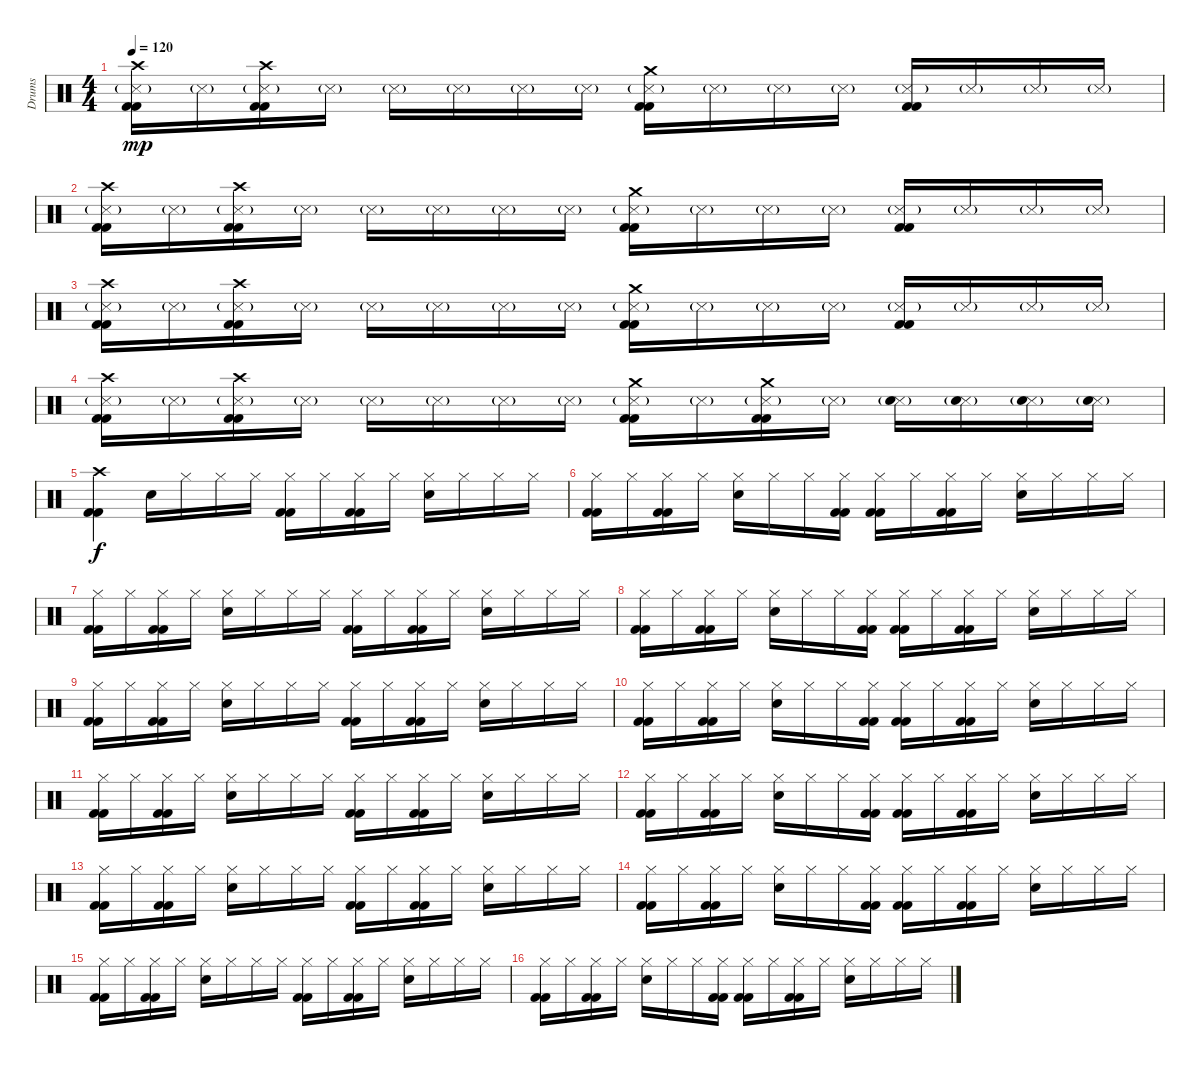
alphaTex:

\track ("Drums" "Drums") {instrument percussion}
\staff {score}
\articulation defaults
\ts (4 4)
\tempo 120
\clef neutral
\ks c
("Crash high (hit)" "Snare (side stick) 3"{g} "Kick (hit) 2" "Kick (hit) 2").16{dy mp} "Snare (side stick) 3"{g}.16 ("Crash high (hit)" "Snare (side stick) 3"{g} "Kick (hit) 2" "Kick (hit) 2").16 "Snare (side stick) 3"{g}.16 "Snare (side stick) 3"{g}.16 "Snare (side stick) 3"{g}.16 "Snare (side stick) 3"{g}.16 "Snare (side stick) 3"{g}.16 ("Crash medium (hit)" "Snare (side stick) 3"{g} "Kick (hit) 2" "Kick (hit) 2").16 "Snare (side stick) 3"{g}.16 "Snare (side stick) 3"{g}.16 "Snare (side stick) 3"{g}.16 ("Snare (side stick) 3"{g} "Kick (hit) 2" "Kick (hit) 2").16 "Snare (side stick) 3"{g}.16 "Snare (side stick) 3"{g}.16 "Snare (side stick) 3"{g}.16 |
("Crash high (hit)" "Snare (side stick) 3"{g} "Kick (hit) 2" "Kick (hit) 2").16 "Snare (side stick) 3"{g}.16 ("Crash high (hit)" "Snare (side stick) 3"{g} "Kick (hit) 2" "Kick (hit) 2").16 "Snare (side stick) 3"{g}.16 "Snare (side stick) 3"{g}.16 "Snare (side stick) 3"{g}.16 "Snare (side stick) 3"{g}.16 "Snare (side stick) 3"{g}.16 ("Crash medium (hit)" "Snare (side stick) 3"{g} "Kick (hit) 2" "Kick (hit) 2").16 "Snare (side stick) 3"{g}.16 "Snare (side stick) 3"{g}.16 "Snare (side stick) 3"{g}.16 ("Snare (side stick) 3"{g} "Kick (hit) 2" "Kick (hit) 2").16 "Snare (side stick) 3"{g}.16 "Snare (side stick) 3"{g}.16 "Snare (side stick) 3"{g}.16 |
("Crash high (hit)" "Snare (side stick) 3"{g} "Kick (hit) 2" "Kick (hit) 2").16 "Snare (side stick) 3"{g}.16 ("Crash high (hit)" "Snare (side stick) 3"{g} "Kick (hit) 2" "Kick (hit) 2").16 "Snare (side stick) 3"{g}.16 "Snare (side stick) 3"{g}.16 "Snare (side stick) 3"{g}.16 "Snare (side stick) 3"{g}.16 "Snare (side stick) 3"{g}.16 ("Crash medium (hit)" "Snare (side stick) 3"{g} "Kick (hit) 2" "Kick (hit) 2").16 "Snare (side stick) 3"{g}.16 "Snare (side stick) 3"{g}.16 "Snare (side stick) 3"{g}.16 ("Snare (side stick) 3"{g} "Kick (hit) 2" "Kick (hit) 2").16 "Snare (side stick) 3"{g}.16 "Snare (side stick) 3"{g}.16 "Snare (side stick) 3"{g}.16 |
("Crash high (hit)" "Snare (side stick) 3"{g} "Kick (hit) 2" "Kick (hit) 2").16 "Snare (side stick) 3"{g}.16 ("Crash high (hit)" "Snare (side stick) 3"{g} "Kick (hit) 2" "Kick (hit) 2").16 "Snare (side stick) 3"{g}.16 "Snare (side stick) 3"{g}.16 "Snare (side stick) 3"{g}.16 "Snare (side stick) 3"{g}.16 "Snare (side stick) 3"{g}.16 ("Crash medium (hit)" "Snare (side stick) 3"{g} "Kick (hit) 2" "Kick (hit) 2").16 "Snare (side stick) 3"{g}.16 ("Crash medium (hit)" "Snare (side stick) 3"{g} "Kick (hit) 2" "Kick (hit) 2").16 "Snare (side stick) 3"{g}.16 ("Snare (side stick) 3"{g} "Electric Snare (hit)").16 ("Snare (side stick) 3"{g} "Electric Snare (hit)").16 ("Snare (side stick) 3"{g} "Electric Snare (hit)").16 ("Snare (side stick) 3"{g} "Electric Snare (hit)").16 |
("Crash high (hit)" "Kick (hit) 2" "Kick (hit) 2").4{dy f} "Electric Snare (hit)".16 "Hi-Hat (closed)".16 "Hi-Hat (closed)".16 "Hi-Hat (closed)".16 ("Hi-Hat (closed)" "Kick (hit) 2" "Kick (hit) 2").16 "Hi-Hat (closed)".16 ("Hi-Hat (closed)" "Kick (hit) 2" "Kick (hit) 2").16 "Hi-Hat (closed)".16 ("Hi-Hat (closed)" "Electric Snare (hit)").16 "Hi-Hat (closed)".16 "Hi-Hat (closed)".16 "Hi-Hat (closed)".16 |
("Hi-Hat (closed)" "Kick (hit) 2" "Kick (hit) 2").16 "Hi-Hat (closed)".16 ("Hi-Hat (closed)" "Kick (hit) 2" "Kick (hit) 2").16 "Hi-Hat (closed)".16 ("Hi-Hat (closed)" "Electric Snare (hit)").16 "Hi-Hat (closed)".16 "Hi-Hat (closed)".16 ("Hi-Hat (closed)" "Kick (hit) 2" "Kick (hit) 2").16 ("Hi-Hat (closed)" "Kick (hit) 2" "Kick (hit) 2").16 "Hi-Hat (closed)".16 ("Hi-Hat (closed)" "Kick (hit) 2" "Kick (hit) 2").16 "Hi-Hat (closed)".16 ("Hi-Hat (closed)" "Electric Snare (hit)").16 "Hi-Hat (closed)".16 "Hi-Hat (closed)".16 "Hi-Hat (closed)".16 |
("Hi-Hat (closed)" "Kick (hit) 2" "Kick (hit) 2").16 "Hi-Hat (closed)".16 ("Hi-Hat (closed)" "Kick (hit) 2" "Kick (hit) 2").16 "Hi-Hat (closed)".16 ("Hi-Hat (closed)" "Electric Snare (hit)").16 "Hi-Hat (closed)".16 "Hi-Hat (closed)".16 "Hi-Hat (closed)".16 ("Hi-Hat (closed)" "Kick (hit) 2" "Kick (hit) 2").16 "Hi-Hat (closed)".16 ("Hi-Hat (closed)" "Kick (hit) 2" "Kick (hit) 2").16 "Hi-Hat (closed)".16 ("Hi-Hat (closed)" "Electric Snare (hit)").16 "Hi-Hat (closed)".16 "Hi-Hat (closed)".16 "Hi-Hat (closed)".16 |
("Hi-Hat (closed)" "Kick (hit) 2" "Kick (hit) 2").16 "Hi-Hat (closed)".16 ("Hi-Hat (closed)" "Kick (hit) 2" "Kick (hit) 2").16 "Hi-Hat (closed)".16 ("Hi-Hat (closed)" "Electric Snare (hit)").16 "Hi-Hat (closed)".16 "Hi-Hat (closed)".16 ("Hi-Hat (closed)" "Kick (hit) 2" "Kick (hit) 2").16 ("Hi-Hat (closed)" "Kick (hit) 2" "Kick (hit) 2").16 "Hi-Hat (closed)".16 ("Hi-Hat (closed)" "Kick (hit) 2" "Kick (hit) 2").16 "Hi-Hat (closed)".16 ("Hi-Hat (closed)" "Electric Snare (hit)").16 "Hi-Hat (closed)".16 "Hi-Hat (closed)".16 "Hi-Hat (closed)".16 |
("Hi-Hat (closed)" "Kick (hit) 2" "Kick (hit) 2").16 "Hi-Hat (closed)".16 ("Hi-Hat (closed)" "Kick (hit) 2" "Kick (hit) 2").16 "Hi-Hat (closed)".16 ("Hi-Hat (closed)" "Electric Snare (hit)").16 "Hi-Hat (closed)".16 "Hi-Hat (closed)".16 "Hi-Hat (closed)".16 ("Hi-Hat (closed)" "Kick (hit) 2" "Kick (hit) 2").16 "Hi-Hat (closed)".16 ("Hi-Hat (closed)" "Kick (hit) 2" "Kick (hit) 2").16 "Hi-Hat (closed)".16 ("Hi-Hat (closed)" "Electric Snare (hit)").16 "Hi-Hat (closed)".16 "Hi-Hat (closed)".16 "Hi-Hat (closed)".16 |
("Hi-Hat (closed)" "Kick (hit) 2" "Kick (hit) 2").16 "Hi-Hat (closed)".16 ("Hi-Hat (closed)" "Kick (hit) 2" "Kick (hit) 2").16 "Hi-Hat (closed)".16 ("Hi-Hat (closed)" "Electric Snare (hit)").16 "Hi-Hat (closed)".16 "Hi-Hat (closed)".16 ("Hi-Hat (closed)" "Kick (hit) 2" "Kick (hit) 2").16 ("Hi-Hat (closed)" "Kick (hit) 2" "Kick (hit) 2").16 "Hi-Hat (closed)".16 ("Hi-Hat (closed)" "Kick (hit) 2" "Kick (hit) 2").16 "Hi-Hat (closed)".16 ("Hi-Hat (closed)" "Electric Snare (hit)").16 "Hi-Hat (closed)".16 "Hi-Hat (closed)".16 "Hi-Hat (closed)".16 |
("Hi-Hat (closed)" "Kick (hit) 2" "Kick (hit) 2").16 "Hi-Hat (closed)".16 ("Hi-Hat (closed)" "Kick (hit) 2" "Kick (hit) 2").16 "Hi-Hat (closed)".16 ("Hi-Hat (closed)" "Electric Snare (hit)").16 "Hi-Hat (closed)".16 "Hi-Hat (closed)".16 "Hi-Hat (closed)".16 ("Hi-Hat (closed)" "Kick (hit) 2" "Kick (hit) 2").16 "Hi-Hat (closed)".16 ("Hi-Hat (closed)" "Kick (hit) 2" "Kick (hit) 2").16 "Hi-Hat (closed)".16 ("Hi-Hat (closed)" "Electric Snare (hit)").16 "Hi-Hat (closed)".16 "Hi-Hat (closed)".16 "Hi-Hat (closed)".16 |
("Hi-Hat (closed)" "Kick (hit) 2" "Kick (hit) 2").16 "Hi-Hat (closed)".16 ("Hi-Hat (closed)" "Kick (hit) 2" "Kick (hit) 2").16 "Hi-Hat (closed)".16 ("Hi-Hat (closed)" "Electric Snare (hit)").16 "Hi-Hat (closed)".16 "Hi-Hat (closed)".16 ("Hi-Hat (closed)" "Kick (hit) 2" "Kick (hit) 2").16 ("Hi-Hat (closed)" "Kick (hit) 2" "Kick (hit) 2").16 "Hi-Hat (closed)".16 ("Hi-Hat (closed)" "Kick (hit) 2" "Kick (hit) 2").16 "Hi-Hat (closed)".16 ("Hi-Hat (closed)" "Electric Snare (hit)").16 "Hi-Hat (closed)".16 "Hi-Hat (closed)".16 "Hi-Hat (closed)".16 |
("Hi-Hat (closed)" "Kick (hit) 2" "Kick (hit) 2").16 "Hi-Hat (closed)".16 ("Hi-Hat (closed)" "Kick (hit) 2" "Kick (hit) 2").16 "Hi-Hat (closed)".16 ("Hi-Hat (closed)" "Electric Snare (hit)").16 "Hi-Hat (closed)".16 "Hi-Hat (closed)".16 "Hi-Hat (closed)".16 ("Hi-Hat (closed)" "Kick (hit) 2" "Kick (hit) 2").16 "Hi-Hat (closed)".16 ("Hi-Hat (closed)" "Kick (hit) 2" "Kick (hit) 2").16 "Hi-Hat (closed)".16 ("Hi-Hat (closed)" "Electric Snare (hit)").16 "Hi-Hat (closed)".16 "Hi-Hat (closed)".16 "Hi-Hat (closed)".16 |
("Hi-Hat (closed)" "Kick (hit) 2" "Kick (hit) 2").16 "Hi-Hat (closed)".16 ("Hi-Hat (closed)" "Kick (hit) 2" "Kick (hit) 2").16 "Hi-Hat (closed)".16 ("Hi-Hat (closed)" "Electric Snare (hit)").16 "Hi-Hat (closed)".16 "Hi-Hat (closed)".16 ("Hi-Hat (closed)" "Kick (hit) 2" "Kick (hit) 2").16 ("Hi-Hat (closed)" "Kick (hit) 2" "Kick (hit) 2").16 "Hi-Hat (closed)".16 ("Hi-Hat (closed)" "Kick (hit) 2" "Kick (hit) 2").16 "Hi-Hat (closed)".16 ("Hi-Hat (closed)" "Electric Snare (hit)").16 "Hi-Hat (closed)".16 "Hi-Hat (closed)".16 "Hi-Hat (closed)".16 |
("Hi-Hat (closed)" "Kick (hit) 2" "Kick (hit) 2").16 "Hi-Hat (closed)".16 ("Hi-Hat (closed)" "Kick (hit) 2" "Kick (hit) 2").16 "Hi-Hat (closed)".16 ("Hi-Hat (closed)" "Electric Snare (hit)").16 "Hi-Hat (closed)".16 "Hi-Hat (closed)".16 "Hi-Hat (closed)".16 ("Hi-Hat (closed)" "Kick (hit) 2" "Kick (hit) 2").16 "Hi-Hat (closed)".16 ("Hi-Hat (closed)" "Kick (hit) 2" "Kick (hit) 2").16 "Hi-Hat (closed)".16 ("Hi-Hat (closed)" "Electric Snare (hit)").16 "Hi-Hat (closed)".16 "Hi-Hat (closed)".16 "Hi-Hat (closed)".16 |
("Hi-Hat (closed)" "Kick (hit) 2" "Kick (hit) 2").16 "Hi-Hat (closed)".16 ("Hi-Hat (closed)" "Kick (hit) 2" "Kick (hit) 2").16 "Hi-Hat (closed)".16 ("Hi-Hat (closed)" "Electric Snare (hit)").16 "Hi-Hat (closed)".16 "Hi-Hat (closed)".16 ("Hi-Hat (closed)" "Kick (hit) 2" "Kick (hit) 2").16 ("Hi-Hat (closed)" "Kick (hit) 2" "Kick (hit) 2").16 "Hi-Hat (closed)".16 ("Hi-Hat (closed)" "Kick (hit) 2" "Kick (hit) 2").16 "Hi-Hat (closed)".16 ("Hi-Hat (closed)" "Electric Snare (hit)").16 "Hi-Hat (closed)".16 "Hi-Hat (closed)".16 "Hi-Hat (closed)".16
